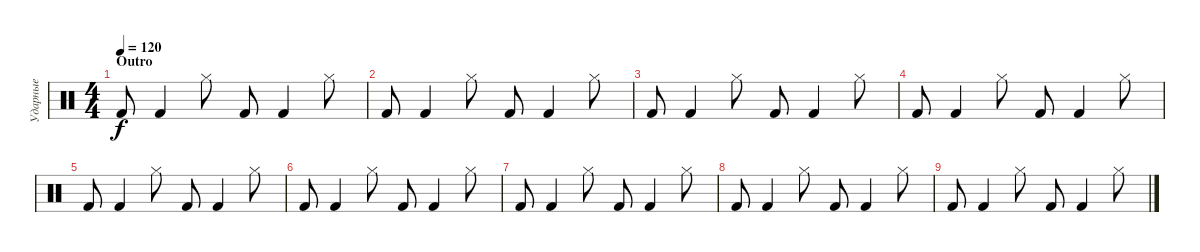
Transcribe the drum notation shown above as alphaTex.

\track ("Ударные" "Ударные") {instrument percussion}
\staff {score}
\articulation defaults
\ts (4 4)
\section ("" "Outro")
\tempo 120
\clef neutral
\ks c "Kick (hit) 2".8{dy f} "Kick (hit) 2".4 "Hi-Hat (closed)".8 "Kick (hit) 2".8 "Kick (hit) 2".4 "Hi-Hat (closed)".8
|
"Kick (hit) 2".8 "Kick (hit) 2".4 "Hi-Hat (closed)".8 "Kick (hit) 2".8 "Kick (hit) 2".4 "Hi-Hat (closed)".8 |
"Kick (hit) 2".8 "Kick (hit) 2".4 "Hi-Hat (closed)".8 "Kick (hit) 2".8 "Kick (hit) 2".4 "Hi-Hat (closed)".8 |
"Kick (hit) 2".8 "Kick (hit) 2".4 "Hi-Hat (closed)".8 "Kick (hit) 2".8 "Kick (hit) 2".4 "Hi-Hat (closed)".8 |
"Kick (hit) 2".8 "Kick (hit) 2".4 "Hi-Hat (closed)".8 "Kick (hit) 2".8 "Kick (hit) 2".4 "Hi-Hat (closed)".8 |
"Kick (hit) 2".8 "Kick (hit) 2".4 "Hi-Hat (closed)".8 "Kick (hit) 2".8 "Kick (hit) 2".4 "Hi-Hat (closed)".8 |
"Kick (hit) 2".8 "Kick (hit) 2".4 "Hi-Hat (closed)".8 "Kick (hit) 2".8 "Kick (hit) 2".4 "Hi-Hat (closed)".8 |
"Kick (hit) 2".8 "Kick (hit) 2".4 "Hi-Hat (closed)".8 "Kick (hit) 2".8 "Kick (hit) 2".4 "Hi-Hat (closed)".8 |
"Kick (hit) 2".8 "Kick (hit) 2".4 "Hi-Hat (closed)".8 "Kick (hit) 2".8 "Kick (hit) 2".4 "Hi-Hat (closed)".8
